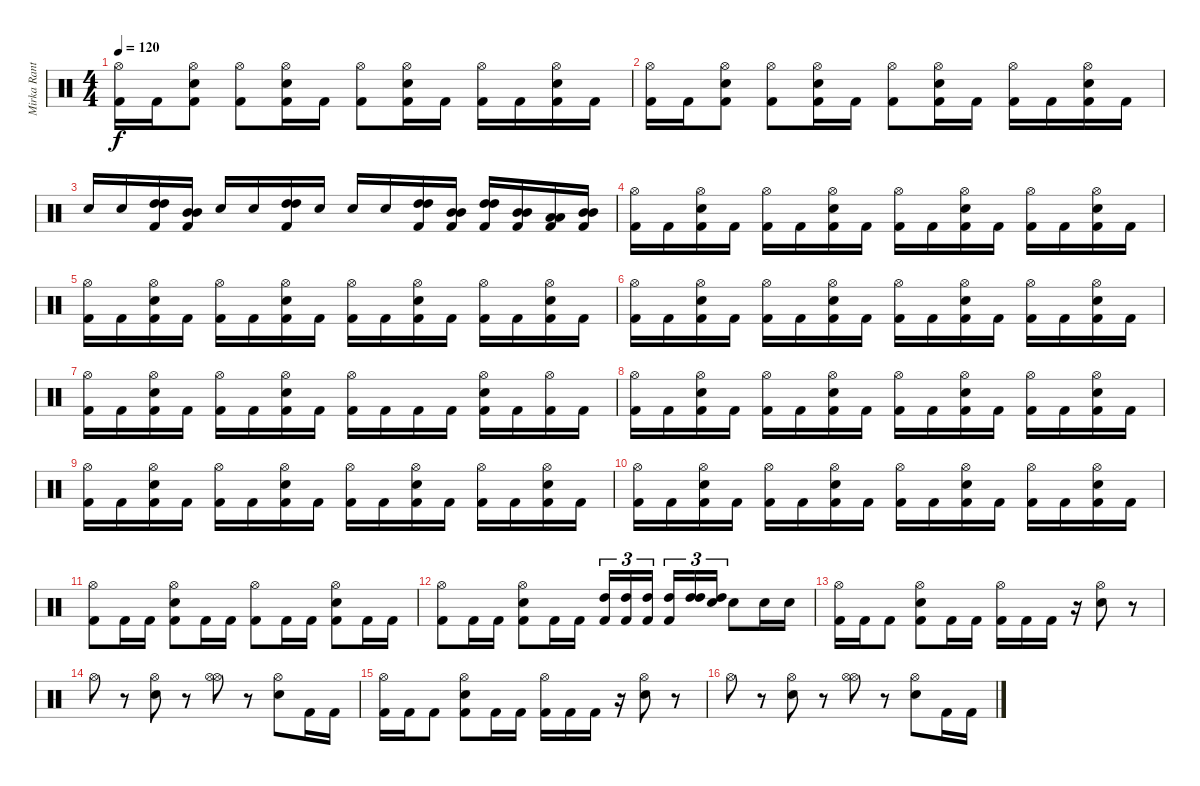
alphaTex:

\track ("Mirka Rantanen" "Mirka Rant") {instrument percussion}
\staff {score}
\articulation defaults
\ts (4 4)
\tempo 120
\clef neutral
\ks c
("Hi-Hat (open)" "Kick (hit) 2").16{dy f} "Kick (hit) 2".16 ("Snare (hit) 2" "Hi-Hat (open)" "Kick (hit) 2").8 ("Hi-Hat (open)" "Kick (hit) 2").8 ("Snare (hit) 2" "Hi-Hat (open)" "Kick (hit) 2").16 "Kick (hit) 2".16 ("Hi-Hat (open)" "Kick (hit) 2").8 ("Snare (hit) 2" "Hi-Hat (open)" "Kick (hit) 2").16 "Kick (hit) 2".16 ("Hi-Hat (open)" "Kick (hit) 2").16 "Kick (hit) 2".16 ("Snare (hit) 2" "Hi-Hat (open)" "Kick (hit) 2").16 "Kick (hit) 2".16 |
("Hi-Hat (open)" "Kick (hit) 2").16 "Kick (hit) 2".16 ("Snare (hit) 2" "Hi-Hat (open)" "Kick (hit) 2").8 ("Hi-Hat (open)" "Kick (hit) 2").8 ("Snare (hit) 2" "Hi-Hat (open)" "Kick (hit) 2").16 "Kick (hit) 2".16 ("Hi-Hat (open)" "Kick (hit) 2").8 ("Snare (hit) 2" "Hi-Hat (open)" "Kick (hit) 2").16 "Kick (hit) 2".16 ("Hi-Hat (open)" "Kick (hit) 2").16 "Kick (hit) 2".16 ("Snare (hit) 2" "Hi-Hat (open)" "Kick (hit) 2").16 "Kick (hit) 2".16 |
"Snare (hit) 2".16 "Snare (hit) 2".16 ("High Tom (hit)" "High Tom (hit)" "Kick (hit) 2").16 ("Mid Tom (hit)" "Mid Tom (hit)" "Kick (hit) 2").16 "Snare (hit) 2".16 "Snare (hit) 2".16 ("High Tom (hit)" "High Tom (hit)" "Kick (hit) 2").16 "Snare (hit) 2".16 "Snare (hit) 2".16 "Snare (hit) 2".16 ("High Tom (hit)" "High Tom (hit)" "Kick (hit) 2").16 ("Mid Tom (hit)" "Mid Tom (hit)" "Kick (hit) 2").16 ("High Tom (hit)" "High Tom (hit)" "Kick (hit) 2").16 ("Mid Tom (hit)" "Mid Tom (hit)" "Kick (hit) 2").16 ("Low Tom (hit)" "Low Tom (hit)" "Kick (hit) 2").16 ("Mid Tom (hit)" "Mid Tom (hit)" "Kick (hit) 2").16 |
("Hi-Hat (open)" "Kick (hit) 2").16 "Kick (hit) 2".16 ("Hi-Hat (open)" "Snare (hit) 2" "Kick (hit) 2").16 "Kick (hit) 2".16 ("Hi-Hat (open)" "Kick (hit) 2").16 "Kick (hit) 2".16 ("Hi-Hat (open)" "Snare (hit) 2" "Kick (hit) 2").16 "Kick (hit) 2".16 ("Hi-Hat (open)" "Kick (hit) 2").16 "Kick (hit) 2".16 ("Hi-Hat (open)" "Snare (hit) 2" "Kick (hit) 2").16 "Kick (hit) 2".16 ("Hi-Hat (open)" "Kick (hit) 2").16 "Kick (hit) 2".16 ("Hi-Hat (open)" "Snare (hit) 2" "Kick (hit) 2").16 "Kick (hit) 2".16 |
("Hi-Hat (open)" "Kick (hit) 2").16 "Kick (hit) 2".16 ("Hi-Hat (open)" "Snare (hit) 2" "Kick (hit) 2").16 "Kick (hit) 2".16 ("Hi-Hat (open)" "Kick (hit) 2").16 "Kick (hit) 2".16 ("Hi-Hat (open)" "Snare (hit) 2" "Kick (hit) 2").16 "Kick (hit) 2".16 ("Hi-Hat (open)" "Kick (hit) 2").16 "Kick (hit) 2".16 ("Hi-Hat (open)" "Snare (hit) 2" "Kick (hit) 2").16 "Kick (hit) 2".16 ("Hi-Hat (open)" "Kick (hit) 2").16 "Kick (hit) 2".16 ("Hi-Hat (open)" "Snare (hit) 2" "Kick (hit) 2").16 "Kick (hit) 2".16 |
("Hi-Hat (open)" "Kick (hit) 2").16 "Kick (hit) 2".16 ("Hi-Hat (open)" "Snare (hit) 2" "Kick (hit) 2").16 "Kick (hit) 2".16 ("Hi-Hat (open)" "Kick (hit) 2").16 "Kick (hit) 2".16 ("Hi-Hat (open)" "Snare (hit) 2" "Kick (hit) 2").16 "Kick (hit) 2".16 ("Hi-Hat (open)" "Kick (hit) 2").16 "Kick (hit) 2".16 ("Hi-Hat (open)" "Snare (hit) 2" "Kick (hit) 2").16 "Kick (hit) 2".16 ("Hi-Hat (open)" "Kick (hit) 2").16 "Kick (hit) 2".16 ("Hi-Hat (open)" "Snare (hit) 2" "Kick (hit) 2").16 "Kick (hit) 2".16 |
("Hi-Hat (open)" "Kick (hit) 2").16 "Kick (hit) 2".16 ("Hi-Hat (open)" "Snare (hit) 2" "Kick (hit) 2").16 "Kick (hit) 2".16 ("Hi-Hat (open)" "Kick (hit) 2").16 "Kick (hit) 2".16 ("Hi-Hat (open)" "Snare (hit) 2" "Kick (hit) 2").16 "Kick (hit) 2".16 ("Hi-Hat (open)" "Kick (hit) 2").16 "Kick (hit) 2".16 "Kick (hit) 2".16 "Kick (hit) 2".16 ("Hi-Hat (open)" "Snare (hit) 2" "Kick (hit) 2").16 "Kick (hit) 2".16 ("Hi-Hat (open)" "Kick (hit) 2").16 "Kick (hit) 2".16 |
("Hi-Hat (open)" "Kick (hit) 2").16 "Kick (hit) 2".16 ("Hi-Hat (open)" "Snare (hit) 2" "Kick (hit) 2").16 "Kick (hit) 2".16 ("Hi-Hat (open)" "Kick (hit) 2").16 "Kick (hit) 2".16 ("Hi-Hat (open)" "Snare (hit) 2" "Kick (hit) 2").16 "Kick (hit) 2".16 ("Hi-Hat (open)" "Kick (hit) 2").16 "Kick (hit) 2".16 ("Hi-Hat (open)" "Snare (hit) 2" "Kick (hit) 2").16 "Kick (hit) 2".16 ("Hi-Hat (open)" "Kick (hit) 2").16 "Kick (hit) 2".16 ("Hi-Hat (open)" "Snare (hit) 2" "Kick (hit) 2").16 "Kick (hit) 2".16 |
("Hi-Hat (open)" "Kick (hit) 2").16 "Kick (hit) 2".16 ("Hi-Hat (open)" "Snare (hit) 2" "Kick (hit) 2").16 "Kick (hit) 2".16 ("Hi-Hat (open)" "Kick (hit) 2").16 "Kick (hit) 2".16 ("Hi-Hat (open)" "Snare (hit) 2" "Kick (hit) 2").16 "Kick (hit) 2".16 ("Hi-Hat (open)" "Kick (hit) 2").16 "Kick (hit) 2".16 ("Hi-Hat (open)" "Snare (hit) 2" "Kick (hit) 2").16 "Kick (hit) 2".16 ("Hi-Hat (open)" "Kick (hit) 2").16 "Kick (hit) 2".16 ("Hi-Hat (open)" "Snare (hit) 2" "Kick (hit) 2").16 "Kick (hit) 2".16 |
("Hi-Hat (open)" "Kick (hit) 2").16 "Kick (hit) 2".16 ("Hi-Hat (open)" "Snare (hit) 2" "Kick (hit) 2").16 "Kick (hit) 2".16 ("Hi-Hat (open)" "Kick (hit) 2").16 "Kick (hit) 2".16 ("Hi-Hat (open)" "Snare (hit) 2" "Kick (hit) 2").16 "Kick (hit) 2".16 ("Hi-Hat (open)" "Kick (hit) 2").16 "Kick (hit) 2".16 ("Hi-Hat (open)" "Snare (hit) 2" "Kick (hit) 2").16 "Kick (hit) 2".16 ("Hi-Hat (open)" "Kick (hit) 2").16 "Kick (hit) 2".16 ("Hi-Hat (open)" "Snare (hit) 2" "Kick (hit) 2").16 "Kick (hit) 2".16 |
("Hi-Hat (open)" "Kick (hit) 2").8 "Kick (hit) 2".16 "Kick (hit) 2".16 ("Hi-Hat (open)" "Snare (hit) 2" "Kick (hit) 2").8 "Kick (hit) 2".16 "Kick (hit) 2".16 ("Hi-Hat (open)" "Kick (hit) 2").8 "Kick (hit) 2".16 "Kick (hit) 2".16 ("Hi-Hat (open)" "Snare (hit) 2" "Kick (hit) 2").8 "Kick (hit) 2".16 "Kick (hit) 2".16 |
("Hi-Hat (open)" "Kick (hit) 2").8 "Kick (hit) 2".16 "Kick (hit) 2".16 ("Hi-Hat (open)" "Snare (hit) 2" "Kick (hit) 2").8 "Kick (hit) 2".16 "Kick (hit) 2".16 ("Kick (hit) 2" "High Tom (hit)").16{tu (3 2)} ("Kick (hit) 2" "High Tom (hit)").16{tu (3 2)} ("Kick (hit) 2" "High Tom (hit)").16{tu (3 2)} ("Kick (hit) 2" "High Tom (hit)").16{tu (3 2)} ("High Tom (hit)" "High Tom (hit)").16{tu (3 2)} ("High Tom (hit)" "Snare (hit) 2").16{tu (3 2)} "Snare (hit) 2".8 "Snare (hit) 2".16 "Snare (hit) 2".16 |
("Hi-Hat (open)" "Kick (hit) 2").16 "Kick (hit) 2".16 "Kick (hit) 2".8 ("Hi-Hat (open)" "Snare (hit) 2" "Kick (hit) 2").8 "Kick (hit) 2".16 "Kick (hit) 2".16 ("Hi-Hat (open)" "Kick (hit) 2").16 "Kick (hit) 2".16 "Kick (hit) 2".16 r.16 ("Hi-Hat (open)" "Snare (hit) 2").8 r.8 |
"Hi-Hat (open)".8 r.8 ("Snare (hit) 2" "Hi-Hat (open)").8 r.8 ("Hi-Hat (open)" "Hi-Hat (open)").8 r.8 ("Snare (hit) 2" "Hi-Hat (open)").8 "Kick (hit) 2".16 "Kick (hit) 2".16 |
("Hi-Hat (open)" "Kick (hit) 2").16 "Kick (hit) 2".16 "Kick (hit) 2".8 ("Hi-Hat (open)" "Snare (hit) 2" "Kick (hit) 2").8 "Kick (hit) 2".16 "Kick (hit) 2".16 ("Hi-Hat (open)" "Kick (hit) 2").16 "Kick (hit) 2".16 "Kick (hit) 2".16 r.16 ("Hi-Hat (open)" "Snare (hit) 2").8 r.8 |
"Hi-Hat (open)".8 r.8 ("Snare (hit) 2" "Hi-Hat (open)").8 r.8 ("Hi-Hat (open)" "Hi-Hat (open)").8 r.8 ("Snare (hit) 2" "Hi-Hat (open)").8 "Kick (hit) 2".16 "Kick (hit) 2".16
